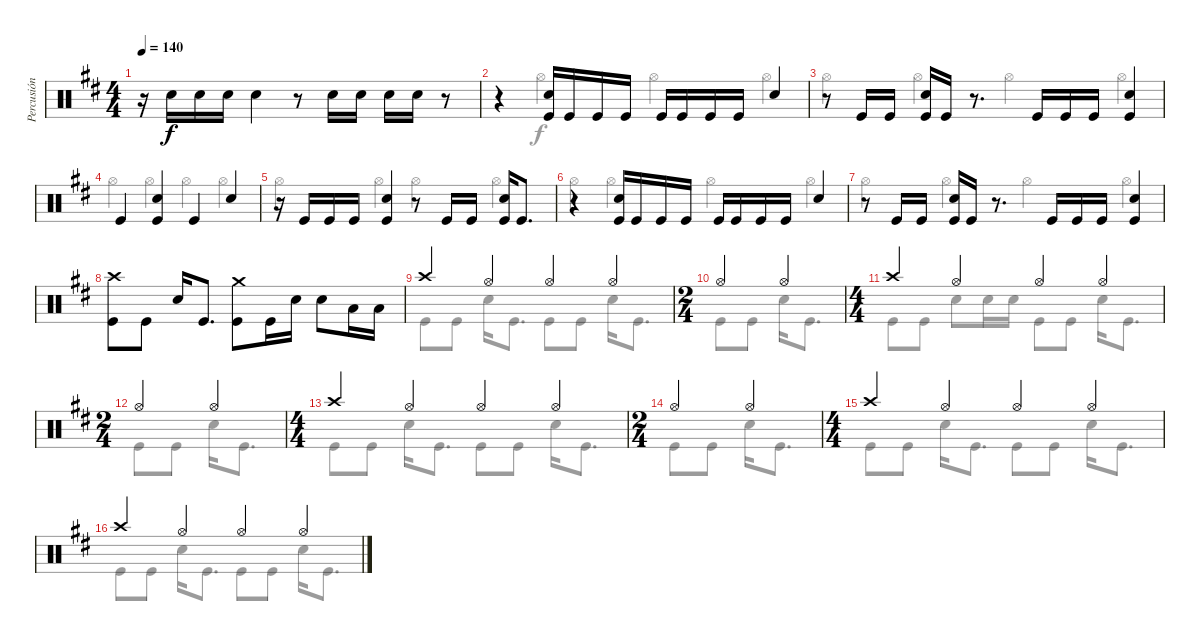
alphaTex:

\track ("Percusión" "Percusión") {instrument percussion}
\staff {score}
\articulation defaults
\voice
\ts (4 4)
\tempo 140
\clef neutral
\ks bminor
r.16{dy f} "Snare (hit) 2".16 "Snare (hit) 2".16 "Snare (hit) 2".16 "Snare (hit) 2".4 r.8 "Snare (hit) 2".16 "Snare (hit) 2".16 "Snare (hit) 2".16 "Snare (hit) 2".16 r.8 |
r.4 ("Snare (hit) 2" "Kick (hit)").16 "Kick (hit)".16 "Kick (hit)".16 "Kick (hit)".16 "Kick (hit)".16 "Kick (hit)".16 "Kick (hit)".16 "Kick (hit)".16 "Snare (hit) 2".4 |
r.8 "Kick (hit)".16 "Kick (hit)".16 ("Snare (hit) 2" "Kick (hit)").16 "Kick (hit)".16 r.8{d} "Kick (hit)".16 "Kick (hit)".16 "Kick (hit)".16 ("Snare (hit) 2" "Kick (hit)").4 |
"Kick (hit)".4 ("Snare (hit) 2" "Kick (hit)").4 "Kick (hit)".4 "Snare (hit) 2".4 |
r.16 "Kick (hit)".16 "Kick (hit)".16 "Kick (hit)".16 ("Snare (hit) 2" "Kick (hit)").4 r.8 "Kick (hit)".16 "Kick (hit)".16 ("Snare (hit) 2" "Kick (hit)").16 "Kick (hit)".8{d} |
r.4 ("Snare (hit) 2" "Kick (hit)").16 "Kick (hit)".16 "Kick (hit)".16 "Kick (hit)".16 "Kick (hit)".16 "Kick (hit)".16 "Kick (hit)".16 "Kick (hit)".16 "Snare (hit) 2".4 |
r.8 "Kick (hit)".16 "Kick (hit)".16 ("Snare (hit) 2" "Kick (hit)").16 "Kick (hit)".16 r.8{d} "Kick (hit)".16 "Kick (hit)".16 "Kick (hit)".16 ("Snare (hit) 2" "Kick (hit)").4 |
("Crash high (hit)" "Kick (hit)").8 "Kick (hit)".8 "Snare (hit) 2".16 "Kick (hit)".8{d} ("Crash medium (hit)" "Kick (hit)").8 "Kick (hit)".16 "Snare (hit) 2".16 "Snare (hit) 2".8 "Low Tom (hit)".16 "Low Tom (hit)".16 |
"Crash high (hit)".4 "Hi-Hat (open)".4 "Hi-Hat (open)".4 "Hi-Hat (open)".4 |
\ts (2 4)
"Hi-Hat (open)".4 "Hi-Hat (open)".4 |
\ts (4 4)
"Crash high (hit)".4 "Hi-Hat (open)".4 "Hi-Hat (open)".4 "Hi-Hat (open)".4 |
\ts (2 4)
"Hi-Hat (open)".4 "Hi-Hat (open)".4 |
\ts (4 4)
"Crash high (hit)".4 "Hi-Hat (open)".4 "Hi-Hat (open)".4 "Hi-Hat (open)".4 |
\ts (2 4)
"Hi-Hat (open)".4 "Hi-Hat (open)".4 |
\ts (4 4)
"Crash high (hit)".4 "Hi-Hat (open)".4 "Hi-Hat (open)".4 "Hi-Hat (open)".4 |
"Crash high (hit)".4 "Hi-Hat (open)".4 "Hi-Hat (open)".4 "Hi-Hat (open)".4
\voice
\clef neutral
\ottava regular
\simile none
\ks bminor
|
r.4 "Hi-Hat (open)".4 "Hi-Hat (open)".4 "Hi-Hat (open)".4 |
"Hi-Hat (open)".4 "Hi-Hat (open)".4 "Hi-Hat (open)".4 "Hi-Hat (open)".4 |
"Hi-Hat (open)".4 "Hi-Hat (open)".4 "Hi-Hat (open)".4 "Hi-Hat (open)".4 |
"Hi-Hat (open)".4 "Hi-Hat (open)".4 "Hi-Hat (open)".4 "Hi-Hat (open)".4 |
"Hi-Hat (open)".4 "Hi-Hat (open)".4 "Hi-Hat (open)".4 "Hi-Hat (open)".4 |
"Hi-Hat (open)".4 "Hi-Hat (open)".4 "Hi-Hat (open)".4 "Hi-Hat (open)".4 |
|
"Kick (hit)".8 "Kick (hit)".8 "Snare (hit) 2".16 "Kick (hit)".8{d} "Kick (hit)".8 "Kick (hit)".8 "Snare (hit) 2".16 "Kick (hit)".8{d} |
"Kick (hit)".8 "Kick (hit)".8 "Snare (hit) 2".16 "Kick (hit)".8{d} |
"Kick (hit)".8 "Kick (hit)".8 "Snare (hit) 2".8 "Snare (hit) 2".16 "Snare (hit) 2".16 "Kick (hit)".8 "Kick (hit)".8 "Snare (hit) 2".16 "Kick (hit)".8{d} |
"Kick (hit)".8 "Kick (hit)".8 "Snare (hit) 2".16 "Kick (hit)".8{d} |
"Kick (hit)".8 "Kick (hit)".8 "Snare (hit) 2".16 "Kick (hit)".8{d} "Kick (hit)".8 "Kick (hit)".8 "Snare (hit) 2".16 "Kick (hit)".8{d} |
"Kick (hit)".8 "Kick (hit)".8 "Snare (hit) 2".16 "Kick (hit)".8{d} |
"Kick (hit)".8 "Kick (hit)".8 "Snare (hit) 2".16 "Kick (hit)".8{d} "Kick (hit)".8 "Kick (hit)".8 "Snare (hit) 2".16 "Kick (hit)".8{d} |
"Kick (hit)".8 "Kick (hit)".8 "Snare (hit) 2".16 "Kick (hit)".8{d} "Kick (hit)".8 "Kick (hit)".8 "Snare (hit) 2".16 "Kick (hit)".8{d}
